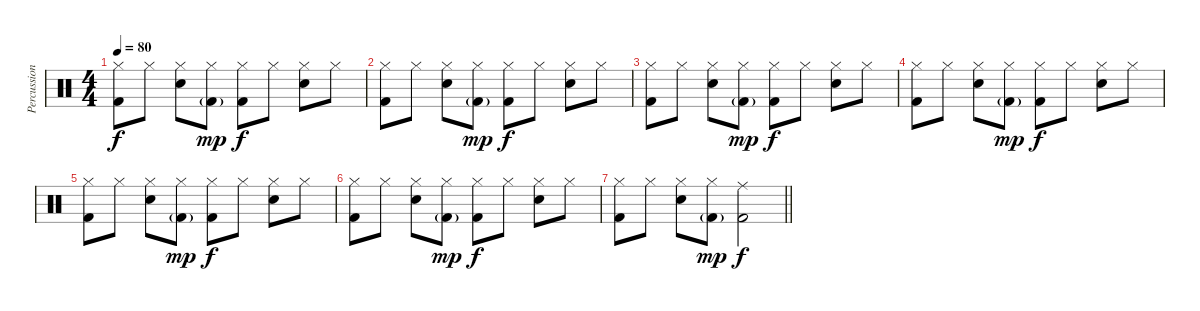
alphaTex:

\track ("Percussion" "Percussion") {instrument percussion}
\staff {score}
\articulation defaults
\ts (4 4)
\tempo 80
\clef neutral
\ks c
("Hi-Hat (closed)" "Kick (hit) 2").8{dy f} "Hi-Hat (closed)".8 ("Hi-Hat (closed)" "Snare (hit) 2").8 ("Hi-Hat (closed)" "Kick (hit) 2"{g}).8{dy mp} ("Hi-Hat (closed)" "Kick (hit) 2").8{dy f} "Hi-Hat (closed)".8 ("Hi-Hat (closed)" "Snare (hit) 2").8 "Hi-Hat (closed)".8 |
("Hi-Hat (closed)" "Kick (hit) 2").8 "Hi-Hat (closed)".8 ("Hi-Hat (closed)" "Snare (hit) 2").8 ("Hi-Hat (closed)" "Kick (hit) 2"{g}).8{dy mp} ("Hi-Hat (closed)" "Kick (hit) 2").8{dy f} "Hi-Hat (closed)".8 ("Hi-Hat (closed)" "Snare (hit) 2").8 "Hi-Hat (closed)".8 |
("Hi-Hat (closed)" "Kick (hit) 2").8 "Hi-Hat (closed)".8 ("Hi-Hat (closed)" "Snare (hit) 2").8 ("Hi-Hat (closed)" "Kick (hit) 2"{g}).8{dy mp} ("Hi-Hat (closed)" "Kick (hit) 2").8{dy f} "Hi-Hat (closed)".8 ("Hi-Hat (closed)" "Snare (hit) 2").8 "Hi-Hat (closed)".8 |
("Hi-Hat (closed)" "Kick (hit) 2").8 "Hi-Hat (closed)".8 ("Hi-Hat (closed)" "Snare (hit) 2").8 ("Hi-Hat (closed)" "Kick (hit) 2"{g}).8{dy mp} ("Hi-Hat (closed)" "Kick (hit) 2").8{dy f} "Hi-Hat (closed)".8 ("Hi-Hat (closed)" "Snare (hit) 2").8 "Hi-Hat (closed)".8 |
("Hi-Hat (closed)" "Kick (hit) 2").8 "Hi-Hat (closed)".8 ("Hi-Hat (closed)" "Snare (hit) 2").8 ("Hi-Hat (closed)" "Kick (hit) 2"{g}).8{dy mp} ("Hi-Hat (closed)" "Kick (hit) 2").8{dy f} "Hi-Hat (closed)".8 ("Hi-Hat (closed)" "Snare (hit) 2").8 "Hi-Hat (closed)".8 |
("Hi-Hat (closed)" "Kick (hit) 2").8 "Hi-Hat (closed)".8 ("Hi-Hat (closed)" "Snare (hit) 2").8 ("Hi-Hat (closed)" "Kick (hit) 2"{g}).8{dy mp} ("Hi-Hat (closed)" "Kick (hit) 2").8{dy f} "Hi-Hat (closed)".8 ("Hi-Hat (closed)" "Snare (hit) 2").8 "Hi-Hat (closed)".8 |
\barLineRight lightlight
("Hi-Hat (closed)" "Kick (hit) 2").8 "Hi-Hat (closed)".8 ("Hi-Hat (closed)" "Snare (hit) 2").8 ("Hi-Hat (closed)" "Kick (hit) 2"{g}).8{dy mp} ("Ride (middle)" "Kick (hit) 2").2{dy f}
